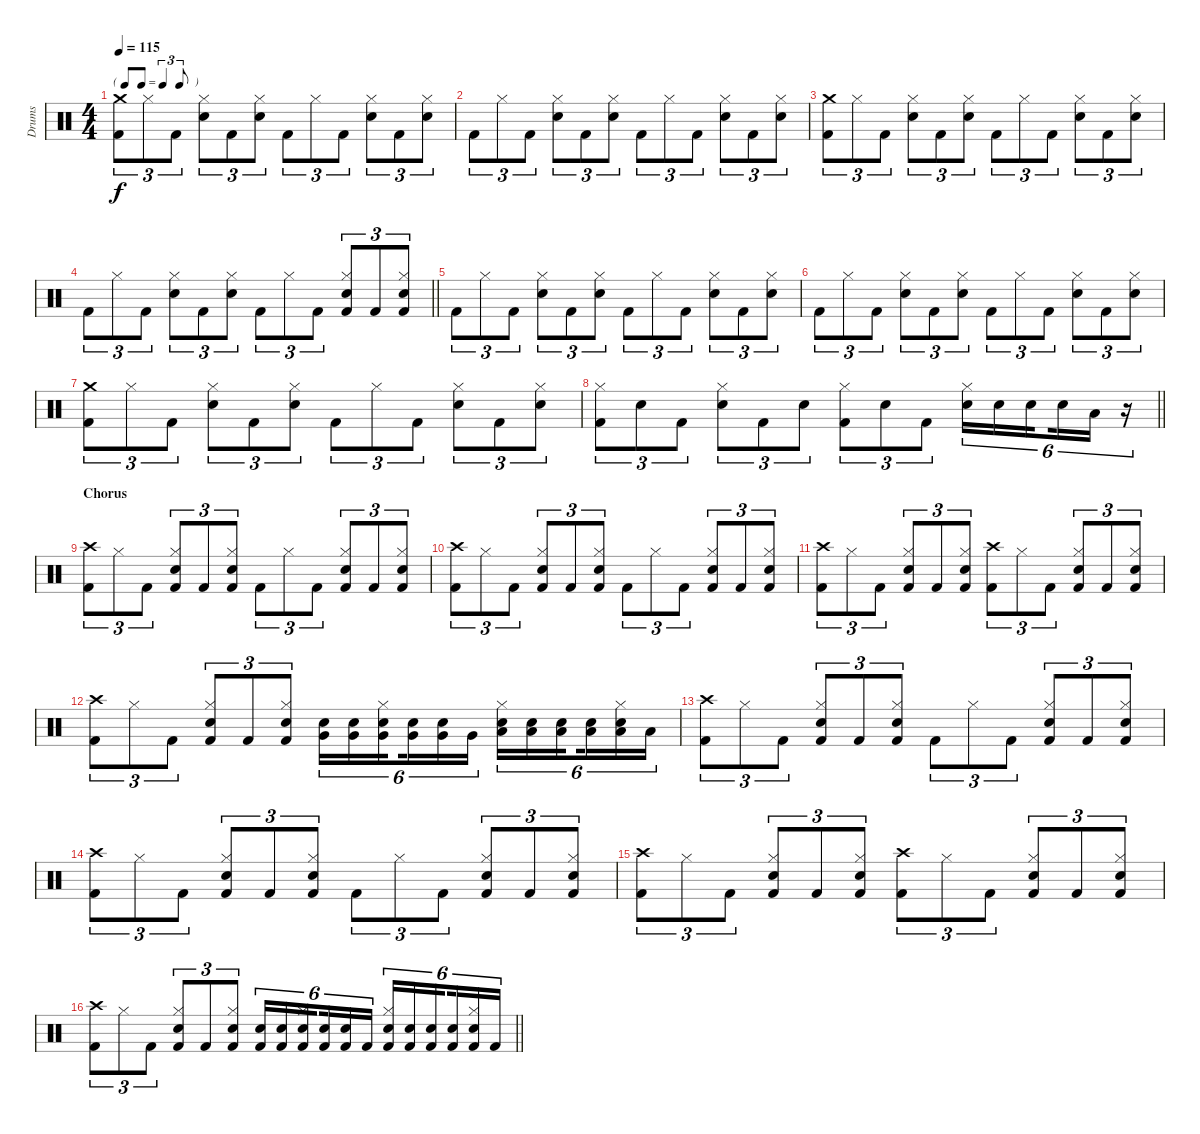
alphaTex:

\track ("Drums" "Drums") {instrument percussion}
\staff {score}
\articulation defaults
\ts (4 4)
\tf triplet8th
\tempo 115
\clef neutral
\ks c
("Crash medium (hit)" "Kick (hit) 2").8{tu (3 2) dy f} "Hi-Hat (closed)".8{tu (3 2)} "Kick (hit) 2".8{tu (3 2)} ("Hi-Hat (closed)" "Snare (hit) 2").8{tu (3 2)} "Kick (hit) 2".8{tu (3 2)} ("Hi-Hat (closed)" "Snare (hit) 2").8{tu (3 2)} "Kick (hit) 2".8{tu (3 2)} "Hi-Hat (closed)".8{tu (3 2)} "Kick (hit) 2".8{tu (3 2)} ("Hi-Hat (closed)" "Snare (hit) 2").8{tu (3 2)} "Kick (hit) 2".8{tu (3 2)} ("Hi-Hat (closed)" "Snare (hit) 2").8{tu (3 2)} |
"Kick (hit) 2".8{tu (3 2)} "Hi-Hat (closed)".8{tu (3 2)} "Kick (hit) 2".8{tu (3 2)} ("Hi-Hat (closed)" "Snare (hit) 2").8{tu (3 2)} "Kick (hit) 2".8{tu (3 2)} ("Hi-Hat (closed)" "Snare (hit) 2").8{tu (3 2)} "Kick (hit) 2".8{tu (3 2)} "Hi-Hat (closed)".8{tu (3 2)} "Kick (hit) 2".8{tu (3 2)} ("Hi-Hat (closed)" "Snare (hit) 2").8{tu (3 2)} "Kick (hit) 2".8{tu (3 2)} ("Hi-Hat (closed)" "Snare (hit) 2").8{tu (3 2)} |
("Crash medium (hit)" "Kick (hit) 2").8{tu (3 2)} "Hi-Hat (closed)".8{tu (3 2)} "Kick (hit) 2".8{tu (3 2)} ("Hi-Hat (closed)" "Snare (hit) 2").8{tu (3 2)} "Kick (hit) 2".8{tu (3 2)} ("Hi-Hat (closed)" "Snare (hit) 2").8{tu (3 2)} "Kick (hit) 2".8{tu (3 2)} "Hi-Hat (closed)".8{tu (3 2)} "Kick (hit) 2".8{tu (3 2)} ("Hi-Hat (closed)" "Snare (hit) 2").8{tu (3 2)} "Kick (hit) 2".8{tu (3 2)} ("Hi-Hat (closed)" "Snare (hit) 2").8{tu (3 2)} |
\barLineRight lightlight "Kick (hit) 2".8{tu (3 2)} "Hi-Hat (closed)".8{tu (3 2)} "Kick (hit) 2".8{tu (3 2)}
("Hi-Hat (closed)" "Snare (hit) 2").8{tu (3 2)} "Kick (hit) 2".8{tu (3 2)} ("Hi-Hat (closed)" "Snare (hit) 2").8{tu (3 2)} "Kick (hit) 2".8{tu (3 2)} "Hi-Hat (closed)".8{tu (3 2)} "Kick (hit) 2".8{tu (3 2)} ("Hi-Hat (closed)" "Snare (hit) 2" "Kick (hit) 2").8{tu (3 2)} "Kick (hit) 2".8{tu (3 2)} ("Hi-Hat (closed)" "Snare (hit) 2" "Kick (hit) 2").8{tu (3 2)} |
"Kick (hit) 2".8{tu (3 2)} "Hi-Hat (closed)".8{tu (3 2)} "Kick (hit) 2".8{tu (3 2)} ("Hi-Hat (closed)" "Snare (hit) 2").8{tu (3 2)} "Kick (hit) 2".8{tu (3 2)} ("Hi-Hat (closed)" "Snare (hit) 2").8{tu (3 2)} "Kick (hit) 2".8{tu (3 2)} "Hi-Hat (closed)".8{tu (3 2)} "Kick (hit) 2".8{tu (3 2)} ("Hi-Hat (closed)" "Snare (hit) 2").8{tu (3 2)} "Kick (hit) 2".8{tu (3 2)} ("Hi-Hat (closed)" "Snare (hit) 2").8{tu (3 2)} |
"Kick (hit) 2".8{tu (3 2)} "Hi-Hat (closed)".8{tu (3 2)} "Kick (hit) 2".8{tu (3 2)} ("Hi-Hat (closed)" "Snare (hit) 2").8{tu (3 2)} "Kick (hit) 2".8{tu (3 2)} ("Hi-Hat (closed)" "Snare (hit) 2").8{tu (3 2)} "Kick (hit) 2".8{tu (3 2)} "Hi-Hat (closed)".8{tu (3 2)} "Kick (hit) 2".8{tu (3 2)} ("Hi-Hat (closed)" "Snare (hit) 2").8{tu (3 2)} "Kick (hit) 2".8{tu (3 2)} ("Hi-Hat (closed)" "Snare (hit) 2").8{tu (3 2)} |
("Crash medium (hit)" "Kick (hit) 2").8{tu (3 2)} "Hi-Hat (closed)".8{tu (3 2)} "Kick (hit) 2".8{tu (3 2)} ("Hi-Hat (closed)" "Snare (hit) 2").8{tu (3 2)} "Kick (hit) 2".8{tu (3 2)} ("Hi-Hat (closed)" "Snare (hit) 2").8{tu (3 2)} "Kick (hit) 2".8{tu (3 2)} "Hi-Hat (closed)".8{tu (3 2)} "Kick (hit) 2".8{tu (3 2)} ("Hi-Hat (closed)" "Snare (hit) 2").8{tu (3 2)} "Kick (hit) 2".8{tu (3 2)} ("Hi-Hat (closed)" "Snare (hit) 2").8{tu (3 2)} |
\barLineRight lightlight
("Hi-Hat (closed)" "Kick (hit) 2").8{tu (3 2)} "Snare (hit) 2".8{tu (3 2)} "Kick (hit) 2".8{tu (3 2)} ("Hi-Hat (closed)" "Snare (hit) 2").8{tu (3 2)} "Kick (hit) 2".8{tu (3 2)} "Snare (hit) 2".8{tu (3 2)} ("Hi-Hat (closed)" "Kick (hit) 2").8{tu (3 2)} "Snare (hit) 2".8{tu (3 2)} "Kick (hit) 2".8{tu (3 2)} ("Hi-Hat (closed)" "Snare (hit) 2").16{tu (6 4)} "Snare (hit) 2".16{tu (6 4)} "Snare (hit) 2".16{tu (6 4) beam splitsecondary} "Snare (hit) 2".16{tu (6 4)} "Low Tom (hit)".16{tu (6 4)} r.16{tu (6 4)} |
\section ("" "Chorus")
("Crash high (hit)" "Kick (hit) 2").8{tu (3 2)} "Hi-Hat (closed)".8{tu (3 2)} "Kick (hit) 2".8{tu (3 2)} ("Hi-Hat (closed)" "Snare (hit) 2" "Kick (hit) 2").8{tu (3 2)} "Kick (hit) 2".8{tu (3 2)} ("Hi-Hat (closed)" "Snare (hit) 2" "Kick (hit) 2").8{tu (3 2)} "Kick (hit) 2".8{tu (3 2)} "Hi-Hat (closed)".8{tu (3 2)} "Kick (hit) 2".8{tu (3 2)} ("Hi-Hat (closed)" "Snare (hit) 2" "Kick (hit) 2").8{tu (3 2)} "Kick (hit) 2".8{tu (3 2)} ("Hi-Hat (closed)" "Snare (hit) 2" "Kick (hit) 2").8{tu (3 2)} |
("Crash high (hit)" "Kick (hit) 2").8{tu (3 2)} "Hi-Hat (closed)".8{tu (3 2)} "Kick (hit) 2".8{tu (3 2)} ("Hi-Hat (closed)" "Snare (hit) 2" "Kick (hit) 2").8{tu (3 2)} "Kick (hit) 2".8{tu (3 2)} ("Hi-Hat (closed)" "Snare (hit) 2" "Kick (hit) 2").8{tu (3 2)} "Kick (hit) 2".8{tu (3 2)} "Hi-Hat (closed)".8{tu (3 2)} "Kick (hit) 2".8{tu (3 2)} ("Hi-Hat (closed)" "Snare (hit) 2" "Kick (hit) 2").8{tu (3 2)} "Kick (hit) 2".8{tu (3 2)} ("Hi-Hat (closed)" "Snare (hit) 2" "Kick (hit) 2").8{tu (3 2)} |
("Crash high (hit)" "Kick (hit) 2").8{tu (3 2)} "Hi-Hat (closed)".8{tu (3 2)} "Kick (hit) 2".8{tu (3 2)} ("Hi-Hat (closed)" "Snare (hit) 2" "Kick (hit) 2").8{tu (3 2)} "Kick (hit) 2".8{tu (3 2)} ("Hi-Hat (closed)" "Snare (hit) 2" "Kick (hit) 2").8{tu (3 2)} ("Crash high (hit)" "Kick (hit) 2").8{tu (3 2)} "Hi-Hat (closed)".8{tu (3 2)} "Kick (hit) 2".8{tu (3 2)} ("Hi-Hat (closed)" "Snare (hit) 2" "Kick (hit) 2").8{tu (3 2)} "Kick (hit) 2".8{tu (3 2)} ("Hi-Hat (closed)" "Snare (hit) 2" "Kick (hit) 2").8{tu (3 2)} |
("Crash high (hit)" "Kick (hit) 2").8{tu (3 2)} "Hi-Hat (closed)".8{tu (3 2)} "Kick (hit) 2".8{tu (3 2)} ("Hi-Hat (closed)" "Snare (hit) 2" "Kick (hit) 2").8{tu (3 2)} "Kick (hit) 2".8{tu (3 2)} ("Hi-Hat (closed)" "Snare (hit) 2" "Kick (hit) 2").8{tu (3 2)} ("Very Low Tom (hit)" "Electric Snare (hit)").16{tu (6 4)} ("Very Low Tom (hit)" "Electric Snare (hit)").16{tu (6 4)} ("Hi-Hat (closed)" "Very Low Tom (hit)" "Electric Snare (hit)").16{tu (6 4) beam splitsecondary} ("Very Low Tom (hit)" "Electric Snare (hit)").16{tu (6 4)} ("Very Low Tom (hit)" "Electric Snare (hit)").16{tu (6 4)} "Very Low Tom (hit)".16{tu (6 4)} ("Hi-Hat (closed)" "Low Floor Tom (hit)" "Electric Snare (hit)").16{tu (6 4)} ("Low Floor Tom (hit)" "Electric Snare (hit)").16{tu (6 4)} ("Low Floor Tom (hit)" "Electric Snare (hit)").16{tu (6 4) beam splitsecondary} ("Low Floor Tom (hit)" "Electric Snare (hit)").16{tu (6 4)} ("Hi-Hat (closed)" "Low Floor Tom (hit)" "Electric Snare (hit)").16{tu (6 4)} "Low Floor Tom (hit)".16{tu (6 4)} |
("Crash high (hit)" "Kick (hit) 2").8{tu (3 2)} "Hi-Hat (closed)".8{tu (3 2)} "Kick (hit) 2".8{tu (3 2)} ("Hi-Hat (closed)" "Snare (hit) 2" "Kick (hit) 2").8{tu (3 2)} "Kick (hit) 2".8{tu (3 2)} ("Hi-Hat (closed)" "Snare (hit) 2" "Kick (hit) 2").8{tu (3 2)} "Kick (hit) 2".8{tu (3 2)} "Hi-Hat (closed)".8{tu (3 2)} "Kick (hit) 2".8{tu (3 2)} ("Hi-Hat (closed)" "Snare (hit) 2" "Kick (hit) 2").8{tu (3 2)} "Kick (hit) 2".8{tu (3 2)} ("Hi-Hat (closed)" "Snare (hit) 2" "Kick (hit) 2").8{tu (3 2)} |
("Crash high (hit)" "Kick (hit) 2").8{tu (3 2)} "Hi-Hat (closed)".8{tu (3 2)} "Kick (hit) 2".8{tu (3 2)} ("Hi-Hat (closed)" "Snare (hit) 2" "Kick (hit) 2").8{tu (3 2)} "Kick (hit) 2".8{tu (3 2)} ("Hi-Hat (closed)" "Snare (hit) 2" "Kick (hit) 2").8{tu (3 2)} "Kick (hit) 2".8{tu (3 2)} "Hi-Hat (closed)".8{tu (3 2)} "Kick (hit) 2".8{tu (3 2)} ("Hi-Hat (closed)" "Snare (hit) 2" "Kick (hit) 2").8{tu (3 2)} "Kick (hit) 2".8{tu (3 2)} ("Hi-Hat (closed)" "Snare (hit) 2" "Kick (hit) 2").8{tu (3 2)} |
("Crash high (hit)" "Kick (hit) 2").8{tu (3 2)} "Hi-Hat (closed)".8{tu (3 2)} "Kick (hit) 2".8{tu (3 2)} ("Hi-Hat (closed)" "Snare (hit) 2" "Kick (hit) 2").8{tu (3 2)} "Kick (hit) 2".8{tu (3 2)} ("Hi-Hat (closed)" "Snare (hit) 2" "Kick (hit) 2").8{tu (3 2)} ("Crash high (hit)" "Kick (hit) 2").8{tu (3 2)} "Hi-Hat (closed)".8{tu (3 2)} "Kick (hit) 2".8{tu (3 2)} ("Hi-Hat (closed)" "Snare (hit) 2" "Kick (hit) 2").8{tu (3 2)} "Kick (hit) 2".8{tu (3 2)} ("Hi-Hat (closed)" "Snare (hit) 2" "Kick (hit) 2").8{tu (3 2)} |
\barLineRight lightlight
("Crash high (hit)" "Kick (hit) 2").8{tu (3 2)} "Hi-Hat (closed)".8{tu (3 2)} "Kick (hit) 2".8{tu (3 2)} ("Hi-Hat (closed)" "Snare (hit) 2" "Kick (hit) 2").8{tu (3 2)} "Kick (hit) 2".8{tu (3 2)} ("Hi-Hat (closed)" "Snare (hit) 2" "Kick (hit) 2").8{tu (3 2)} ("Electric Snare (hit)" "Kick (hit) 2").16{tu (6 4)} ("Electric Snare (hit)" "Kick (hit) 2").16{tu (6 4)} ("Hi-Hat (closed)" "Electric Snare (hit)" "Kick (hit) 2").16{tu (6 4) beam splitsecondary} ("Electric Snare (hit)" "Kick (hit) 2").16{tu (6 4)} ("Electric Snare (hit)" "Kick (hit) 2").16{tu (6 4)} "Kick (hit) 2".16{tu (6 4)} ("Hi-Hat (closed)" "Electric Snare (hit)" "Kick (hit) 2").16{tu (6 4)} ("Electric Snare (hit)" "Kick (hit) 2").16{tu (6 4)} ("Electric Snare (hit)" "Kick (hit) 2").16{tu (6 4) beam splitsecondary} ("Electric Snare (hit)" "Kick (hit) 2").16{tu (6 4)} ("Hi-Hat (closed)" "Electric Snare (hit)" "Kick (hit) 2").16{tu (6 4)} "Kick (hit) 2".16{tu (6 4)}
